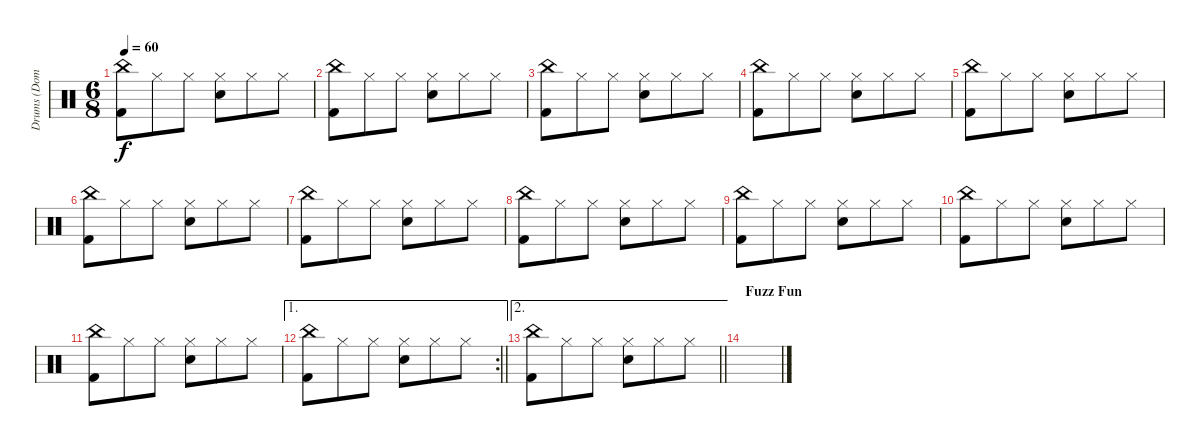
\track ("Drums (Dom)" "Drums (Dom") {instrument percussion}
\staff {score}
\articulation defaults
\ts (6 8)
\tempo 60
\clef neutral
\ks c
("China (hit)" "Kick (hit) 2").8{dy f} "Hi-Hat (closed)".8 "Hi-Hat (closed)".8 ("Hi-Hat (closed)" "Snare (hit) 2").8 "Hi-Hat (closed)".8 "Hi-Hat (closed)".8 |
("China (hit)" "Kick (hit) 2").8 "Hi-Hat (closed)".8 "Hi-Hat (closed)".8 ("Hi-Hat (closed)" "Snare (hit) 2").8 "Hi-Hat (closed)".8 "Hi-Hat (closed)".8 |
("China (hit)" "Kick (hit) 2").8 "Hi-Hat (closed)".8 "Hi-Hat (closed)".8 ("Hi-Hat (closed)" "Snare (hit) 2").8 "Hi-Hat (closed)".8 "Hi-Hat (closed)".8 |
("China (hit)" "Kick (hit) 2").8 "Hi-Hat (closed)".8 "Hi-Hat (closed)".8 ("Hi-Hat (closed)" "Snare (hit) 2").8 "Hi-Hat (closed)".8 "Hi-Hat (closed)".8 |
("China (hit)" "Kick (hit) 2").8 "Hi-Hat (closed)".8 "Hi-Hat (closed)".8 ("Hi-Hat (closed)" "Snare (hit) 2").8 "Hi-Hat (closed)".8 "Hi-Hat (closed)".8 |
("China (hit)" "Kick (hit) 2").8 "Hi-Hat (closed)".8 "Hi-Hat (closed)".8 ("Hi-Hat (closed)" "Snare (hit) 2").8 "Hi-Hat (closed)".8 "Hi-Hat (closed)".8 |
("China (hit)" "Kick (hit) 2").8 "Hi-Hat (closed)".8 "Hi-Hat (closed)".8 ("Hi-Hat (closed)" "Snare (hit) 2").8 "Hi-Hat (closed)".8 "Hi-Hat (closed)".8 |
("China (hit)" "Kick (hit) 2").8 "Hi-Hat (closed)".8 "Hi-Hat (closed)".8 ("Hi-Hat (closed)" "Snare (hit) 2").8 "Hi-Hat (closed)".8 "Hi-Hat (closed)".8 |
("China (hit)" "Kick (hit) 2").8 "Hi-Hat (closed)".8 "Hi-Hat (closed)".8 ("Hi-Hat (closed)" "Snare (hit) 2").8 "Hi-Hat (closed)".8 "Hi-Hat (closed)".8 |
("China (hit)" "Kick (hit) 2").8 "Hi-Hat (closed)".8 "Hi-Hat (closed)".8 ("Hi-Hat (closed)" "Snare (hit) 2").8 "Hi-Hat (closed)".8 "Hi-Hat (closed)".8 |
("China (hit)" "Kick (hit) 2").8 "Hi-Hat (closed)".8 "Hi-Hat (closed)".8 ("Hi-Hat (closed)" "Snare (hit) 2").8 "Hi-Hat (closed)".8 "Hi-Hat (closed)".8 |
\ae 1
\rc 2
\barLineRight lightlight
("China (hit)" "Kick (hit) 2").8 "Hi-Hat (closed)".8 "Hi-Hat (closed)".8 ("Hi-Hat (closed)" "Snare (hit) 2").8 "Hi-Hat (closed)".8 "Hi-Hat (closed)".8 |
\ae 2
\barLineRight lightlight
("China (hit)" "Kick (hit) 2").8 "Hi-Hat (closed)".8 "Hi-Hat (closed)".8 ("Hi-Hat (closed)" "Snare (hit) 2").8 "Hi-Hat (closed)".8 "Hi-Hat (closed)".8 |
\section ("" "Fuzz Fun")
